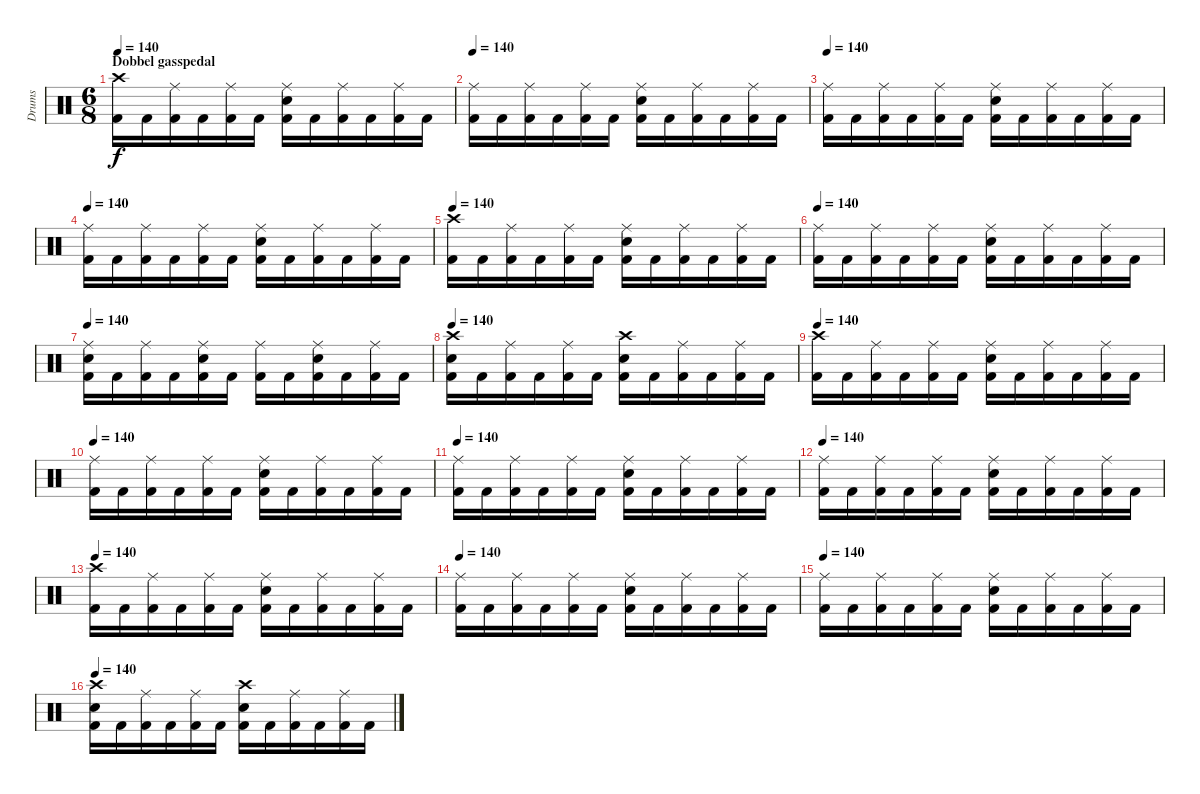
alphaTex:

\track ("Drums" "Drums") {instrument percussion}
\staff {score}
\articulation defaults
\ts (6 8)
\section ("" "Dobbel gasspedal")
\tempo 140
\clef neutral
\ks c
("Kick (hit) 2" "Crash high (hit)").16{dy f} "Kick (hit) 2".16 ("Kick (hit) 2" "Ride (middle)").16 "Kick (hit) 2".16 ("Kick (hit) 2" "Ride (middle)").16 "Kick (hit) 2".16 ("Kick (hit) 2" "Electric Snare (hit)" "Ride (middle)").16 "Kick (hit) 2".16 ("Kick (hit) 2" "Ride (middle)").16 "Kick (hit) 2".16 ("Kick (hit) 2" "Ride (middle)").16 "Kick (hit) 2".16 |
\tempo 140
("Kick (hit) 2" "Ride (middle)").16 "Kick (hit) 2".16 ("Kick (hit) 2" "Ride (middle)").16 "Kick (hit) 2".16 ("Kick (hit) 2" "Ride (middle)").16 "Kick (hit) 2".16 ("Kick (hit) 2" "Electric Snare (hit)" "Ride (middle)").16 "Kick (hit) 2".16 ("Kick (hit) 2" "Ride (middle)").16 "Kick (hit) 2".16 ("Kick (hit) 2" "Ride (middle)").16 "Kick (hit) 2".16 |
\tempo 140
("Kick (hit) 2" "Ride (middle)").16 "Kick (hit) 2".16 ("Kick (hit) 2" "Ride (middle)").16 "Kick (hit) 2".16 ("Kick (hit) 2" "Ride (middle)").16 "Kick (hit) 2".16 ("Kick (hit) 2" "Electric Snare (hit)" "Ride (middle)").16 "Kick (hit) 2".16 ("Kick (hit) 2" "Ride (middle)").16 "Kick (hit) 2".16 ("Kick (hit) 2" "Ride (middle)").16 "Kick (hit) 2".16 |
\tempo 140
("Kick (hit) 2" "Ride (middle)").16 "Kick (hit) 2".16 ("Kick (hit) 2" "Ride (middle)").16 "Kick (hit) 2".16 ("Kick (hit) 2" "Ride (middle)").16 "Kick (hit) 2".16 ("Kick (hit) 2" "Electric Snare (hit)" "Ride (middle)").16 "Kick (hit) 2".16 ("Kick (hit) 2" "Ride (middle)").16 "Kick (hit) 2".16 ("Kick (hit) 2" "Ride (middle)").16 "Kick (hit) 2".16 |
\tempo 140
("Kick (hit) 2" "Crash high (hit)").16 "Kick (hit) 2".16 ("Kick (hit) 2" "Ride (middle)").16 "Kick (hit) 2".16 ("Kick (hit) 2" "Ride (middle)").16 "Kick (hit) 2".16 ("Kick (hit) 2" "Electric Snare (hit)" "Ride (middle)").16 "Kick (hit) 2".16 ("Kick (hit) 2" "Ride (middle)").16 "Kick (hit) 2".16 ("Kick (hit) 2" "Ride (middle)").16 "Kick (hit) 2".16 |
\tempo 140
("Kick (hit) 2" "Ride (middle)").16 "Kick (hit) 2".16 ("Kick (hit) 2" "Ride (middle)").16 "Kick (hit) 2".16 ("Kick (hit) 2" "Ride (middle)").16 "Kick (hit) 2".16 ("Kick (hit) 2" "Electric Snare (hit)" "Ride (middle)").16 "Kick (hit) 2".16 ("Kick (hit) 2" "Ride (middle)").16 "Kick (hit) 2".16 ("Kick (hit) 2" "Ride (middle)").16 "Kick (hit) 2".16 |
\tempo 140
("Kick (hit) 2" "Electric Snare (hit)" "Ride (middle)").16 "Kick (hit) 2".16 ("Kick (hit) 2" "Ride (middle)").16 "Kick (hit) 2".16 ("Kick (hit) 2" "Electric Snare (hit)" "Ride (middle)").16 "Kick (hit) 2".16 ("Kick (hit) 2" "Ride (middle)").16 "Kick (hit) 2".16 ("Kick (hit) 2" "Electric Snare (hit)" "Ride (middle)").16 "Kick (hit) 2".16 ("Kick (hit) 2" "Ride (middle)").16 "Kick (hit) 2".16 |
\tempo 140
("Kick (hit) 2" "Electric Snare (hit)" "Crash high (hit)").16 "Kick (hit) 2".16 ("Kick (hit) 2" "Ride (middle)").16 "Kick (hit) 2".16 ("Kick (hit) 2" "Ride (middle)").16 "Kick (hit) 2".16 ("Kick (hit) 2" "Electric Snare (hit)" "Crash high (hit)").16 "Kick (hit) 2".16 ("Kick (hit) 2" "Ride (middle)").16 "Kick (hit) 2".16 ("Kick (hit) 2" "Ride (middle)").16 "Kick (hit) 2".16 |
\tempo 140
("Kick (hit) 2" "Crash high (hit)").16 "Kick (hit) 2".16 ("Kick (hit) 2" "Ride (middle)").16 "Kick (hit) 2".16 ("Kick (hit) 2" "Ride (middle)").16 "Kick (hit) 2".16 ("Kick (hit) 2" "Electric Snare (hit)" "Ride (middle)").16 "Kick (hit) 2".16 ("Kick (hit) 2" "Ride (middle)").16 "Kick (hit) 2".16 ("Kick (hit) 2" "Ride (middle)").16 "Kick (hit) 2".16 |
\tempo 140
("Kick (hit) 2" "Ride (middle)").16 "Kick (hit) 2".16 ("Kick (hit) 2" "Ride (middle)").16 "Kick (hit) 2".16 ("Kick (hit) 2" "Ride (middle)").16 "Kick (hit) 2".16 ("Kick (hit) 2" "Electric Snare (hit)" "Ride (middle)").16 "Kick (hit) 2".16 ("Kick (hit) 2" "Ride (middle)").16 "Kick (hit) 2".16 ("Kick (hit) 2" "Ride (middle)").16 "Kick (hit) 2".16 |
\tempo 140
("Kick (hit) 2" "Ride (middle)").16 "Kick (hit) 2".16 ("Kick (hit) 2" "Ride (middle)").16 "Kick (hit) 2".16 ("Kick (hit) 2" "Ride (middle)").16 "Kick (hit) 2".16 ("Kick (hit) 2" "Electric Snare (hit)" "Ride (middle)").16 "Kick (hit) 2".16 ("Kick (hit) 2" "Ride (middle)").16 "Kick (hit) 2".16 ("Kick (hit) 2" "Ride (middle)").16 "Kick (hit) 2".16 |
\tempo 140
("Kick (hit) 2" "Ride (middle)").16 "Kick (hit) 2".16 ("Kick (hit) 2" "Ride (middle)").16 "Kick (hit) 2".16 ("Kick (hit) 2" "Ride (middle)").16 "Kick (hit) 2".16 ("Kick (hit) 2" "Electric Snare (hit)" "Ride (middle)").16 "Kick (hit) 2".16 ("Kick (hit) 2" "Ride (middle)").16 "Kick (hit) 2".16 ("Kick (hit) 2" "Ride (middle)").16 "Kick (hit) 2".16 |
\tempo 140
("Kick (hit) 2" "Crash high (hit)").16 "Kick (hit) 2".16 ("Kick (hit) 2" "Ride (middle)").16 "Kick (hit) 2".16 ("Kick (hit) 2" "Ride (middle)").16 "Kick (hit) 2".16 ("Kick (hit) 2" "Electric Snare (hit)" "Ride (middle)").16 "Kick (hit) 2".16 ("Kick (hit) 2" "Ride (middle)").16 "Kick (hit) 2".16 ("Kick (hit) 2" "Ride (middle)").16 "Kick (hit) 2".16 |
\tempo 140
("Kick (hit) 2" "Ride (middle)").16 "Kick (hit) 2".16 ("Kick (hit) 2" "Ride (middle)").16 "Kick (hit) 2".16 ("Kick (hit) 2" "Ride (middle)").16 "Kick (hit) 2".16 ("Kick (hit) 2" "Electric Snare (hit)" "Ride (middle)").16 "Kick (hit) 2".16 ("Kick (hit) 2" "Ride (middle)").16 "Kick (hit) 2".16 ("Kick (hit) 2" "Ride (middle)").16 "Kick (hit) 2".16 |
\tempo 140
("Kick (hit) 2" "Ride (middle)").16 "Kick (hit) 2".16 ("Kick (hit) 2" "Ride (middle)").16 "Kick (hit) 2".16 ("Kick (hit) 2" "Ride (middle)").16 "Kick (hit) 2".16 ("Kick (hit) 2" "Electric Snare (hit)" "Ride (middle)").16 "Kick (hit) 2".16 ("Kick (hit) 2" "Ride (middle)").16 "Kick (hit) 2".16 ("Kick (hit) 2" "Ride (middle)").16 "Kick (hit) 2".16 |
\tempo 140
("Kick (hit) 2" "Electric Snare (hit)" "Crash high (hit)").16 "Kick (hit) 2".16 ("Kick (hit) 2" "Ride (middle)").16 "Kick (hit) 2".16 ("Kick (hit) 2" "Ride (middle)").16 "Kick (hit) 2".16 ("Kick (hit) 2" "Electric Snare (hit)" "Crash high (hit)").16 "Kick (hit) 2".16 ("Kick (hit) 2" "Ride (middle)").16 "Kick (hit) 2".16 ("Kick (hit) 2" "Ride (middle)").16 "Kick (hit) 2".16
